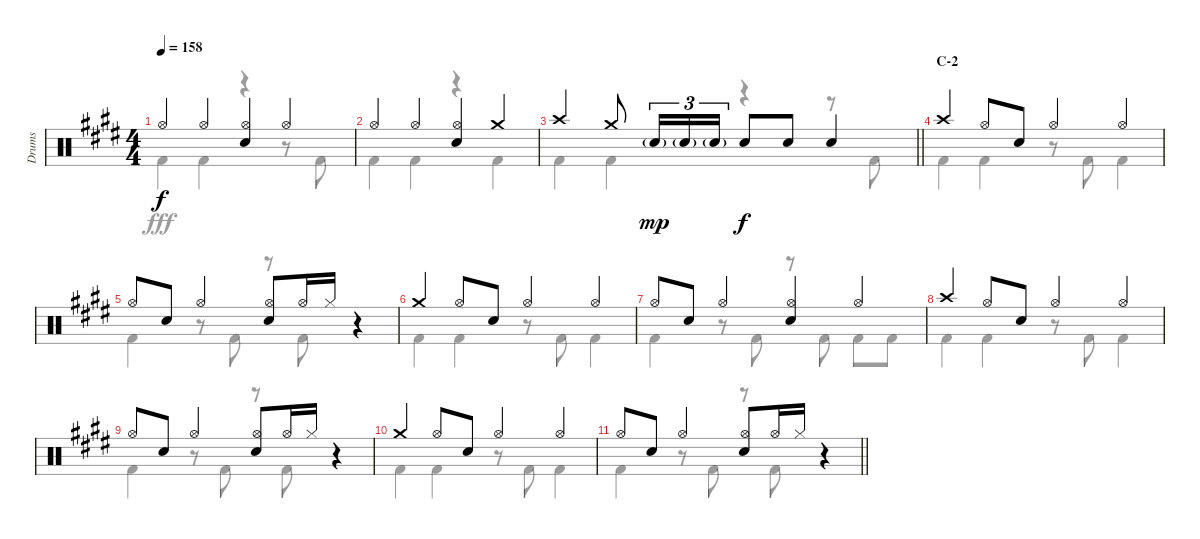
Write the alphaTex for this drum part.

\track ("Drums" "Drums") {instrument percussion}
\staff {score}
\articulation defaults
\voice
\ts (4 4)
\tempo 158
\clef neutral
\ks e "Hi-Hat (open)".4{dy f} "Hi-Hat (open)".4
("Hi-Hat (open)" "Snare (hit) 2").4 "Hi-Hat (open)".4 |
"Hi-Hat (open)".4 "Hi-Hat (open)".4 ("Hi-Hat (open)" "Snare (hit) 2").4 "Crash medium (hit)".4 |
\barLineRight lightlight "Crash high (hit)".4 "Crash medium (hit)".8 "Snare (hit) 2"{g}.16{tu (3 2) dy mp} "Snare (hit) 2"{g}.16{tu (3 2)} "Snare (hit) 2"{g}.16{tu (3 2)} "Snare (hit) 2".8{dy f} "Snare (hit) 2".8 "Snare (hit) 2".4
|
\section ("" "C-2")
"Crash high (hit)".4 "Hi-Hat (open)".8 "Snare (hit) 2".8 "Hi-Hat (open)".4 "Hi-Hat (open)".4 |
"Hi-Hat (open)".8 "Snare (hit) 2".8 "Hi-Hat (open)".4 ("Hi-Hat (open)" "Snare (hit) 2").8 "Hi-Hat (open)".16 "Hi-Hat (closed)".16 r.4 |
"Crash medium (hit)".4 "Hi-Hat (open)".8 "Snare (hit) 2".8 "Hi-Hat (open)".4 "Hi-Hat (open)".4 |
"Hi-Hat (open)".8 "Snare (hit) 2".8 "Hi-Hat (open)".4 ("Hi-Hat (open)" "Snare (hit) 2").4 "Hi-Hat (open)".4 |
"Crash high (hit)".4 "Hi-Hat (open)".8 "Snare (hit) 2".8 "Hi-Hat (open)".4 "Hi-Hat (open)".4 |
"Hi-Hat (open)".8 "Snare (hit) 2".8 "Hi-Hat (open)".4 ("Hi-Hat (open)" "Snare (hit) 2").8 "Hi-Hat (open)".16 "Hi-Hat (closed)".16 r.4 |
"Crash medium (hit)".4 "Hi-Hat (open)".8 "Snare (hit) 2".8 "Hi-Hat (open)".4 "Hi-Hat (open)".4 |
\barLineRight lightlight "Hi-Hat (open)".8 "Snare (hit) 2".8 "Hi-Hat (open)".4
("Hi-Hat (open)" "Snare (hit) 2").8 "Hi-Hat (open)".16 "Hi-Hat (closed)".16 r.4
\voice
\clef neutral
\ottava regular
\simile none
\ks e "Kick (hit) 2".4{dy fff} "Kick (hit) 2".4
r.4 r.8 "Kick (hit) 2".8 |
"Kick (hit) 2".4 "Kick (hit) 2".4 r.4 "Kick (hit) 2".4 |
\barLineRight lightlight "Kick (hit) 2".4 "Kick (hit) 2".4
r.4 r.8 "Kick (hit) 2".8 |
"Kick (hit) 2".4 "Kick (hit) 2".4 r.8 "Kick (hit) 2".8 "Kick (hit) 2".4 |
"Kick (hit) 2".4 r.8 "Kick (hit) 2".8 r.8 "Kick (hit) 2".8 r.4 |
"Kick (hit) 2".4 "Kick (hit) 2".4 r.8 "Kick (hit) 2".8 "Kick (hit) 2".4 |
"Kick (hit) 2".4 r.8 "Kick (hit) 2".8 r.8 "Kick (hit) 2".8 "Kick (hit) 2".8 "Kick (hit) 2".8 |
"Kick (hit) 2".4 "Kick (hit) 2".4 r.8 "Kick (hit) 2".8 "Kick (hit) 2".4 |
"Kick (hit) 2".4 r.8 "Kick (hit) 2".8 r.8 "Kick (hit) 2".8 r.4 |
"Kick (hit) 2".4 "Kick (hit) 2".4 r.8 "Kick (hit) 2".8 "Kick (hit) 2".4 |
\barLineRight lightlight "Kick (hit) 2".4
r.8 "Kick (hit) 2".8 r.8 "Kick (hit) 2".8 r.4
